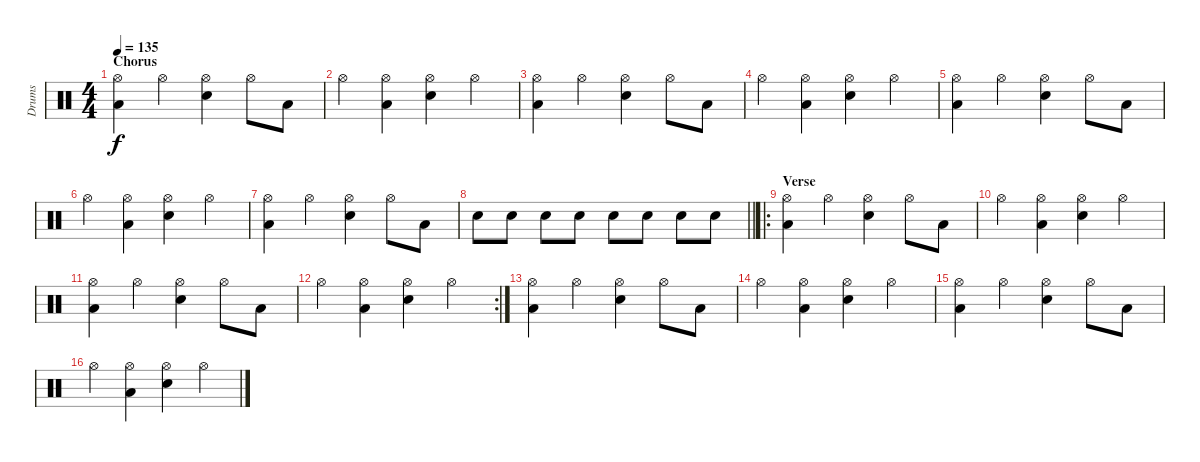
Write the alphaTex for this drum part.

\track ("Drums" "Drums") {instrument percussion}
\staff {score}
\articulation defaults
\ts (4 4)
\section ("" "Chorus")
\tempo 135
\clef neutral
\ks c
("Hi-Hat (open)" "Low Tom (hit)").4{dy f} "Hi-Hat (open)".4 ("Hi-Hat (open)" "Electric Snare (hit)").4 "Hi-Hat (open)".8 "Low Tom (hit)".8 |
"Hi-Hat (open)".4 ("Hi-Hat (open)" "Low Tom (hit)").4 ("Hi-Hat (open)" "Electric Snare (hit)").4 "Hi-Hat (open)".4 |
("Hi-Hat (open)" "Low Tom (hit)").4 "Hi-Hat (open)".4 ("Hi-Hat (open)" "Electric Snare (hit)").4 "Hi-Hat (open)".8 "Low Tom (hit)".8 |
"Hi-Hat (open)".4 ("Hi-Hat (open)" "Low Tom (hit)").4 ("Hi-Hat (open)" "Electric Snare (hit)").4 "Hi-Hat (open)".4 |
("Hi-Hat (open)" "Low Tom (hit)").4 "Hi-Hat (open)".4 ("Hi-Hat (open)" "Electric Snare (hit)").4 "Hi-Hat (open)".8 "Low Tom (hit)".8 |
"Hi-Hat (open)".4 ("Hi-Hat (open)" "Low Tom (hit)").4 ("Hi-Hat (open)" "Electric Snare (hit)").4 "Hi-Hat (open)".4 |
("Hi-Hat (open)" "Low Tom (hit)").4 "Hi-Hat (open)".4 ("Hi-Hat (open)" "Electric Snare (hit)").4 "Hi-Hat (open)".8 "Low Tom (hit)".8 |
\barLineRight lightlight "Electric Snare (hit)".8 "Electric Snare (hit)".8 "Electric Snare (hit)".8 "Electric Snare (hit)".8 "Electric Snare (hit)".8 "Electric Snare (hit)".8 "Electric Snare (hit)".8 "Electric Snare (hit)".8
|
\ro
\section ("" "Verse")
("Hi-Hat (open)" "Low Tom (hit)").4 "Hi-Hat (open)".4 ("Hi-Hat (open)" "Electric Snare (hit)").4 "Hi-Hat (open)".8 "Low Tom (hit)".8 |
"Hi-Hat (open)".4 ("Hi-Hat (open)" "Low Tom (hit)").4 ("Hi-Hat (open)" "Electric Snare (hit)").4 "Hi-Hat (open)".4 |
("Hi-Hat (open)" "Low Tom (hit)").4 "Hi-Hat (open)".4 ("Hi-Hat (open)" "Electric Snare (hit)").4 "Hi-Hat (open)".8 "Low Tom (hit)".8 |
\rc 2 "Hi-Hat (open)".4
("Hi-Hat (open)" "Low Tom (hit)").4 ("Hi-Hat (open)" "Electric Snare (hit)").4 "Hi-Hat (open)".4 |
("Hi-Hat (open)" "Low Tom (hit)").4 "Hi-Hat (open)".4 ("Hi-Hat (open)" "Electric Snare (hit)").4 "Hi-Hat (open)".8 "Low Tom (hit)".8 |
"Hi-Hat (open)".4 ("Hi-Hat (open)" "Low Tom (hit)").4 ("Hi-Hat (open)" "Electric Snare (hit)").4 "Hi-Hat (open)".4 |
("Hi-Hat (open)" "Low Tom (hit)").4 "Hi-Hat (open)".4 ("Hi-Hat (open)" "Electric Snare (hit)").4 "Hi-Hat (open)".8 "Low Tom (hit)".8 |
"Hi-Hat (open)".4 ("Hi-Hat (open)" "Low Tom (hit)").4 ("Hi-Hat (open)" "Electric Snare (hit)").4 "Hi-Hat (open)".4
